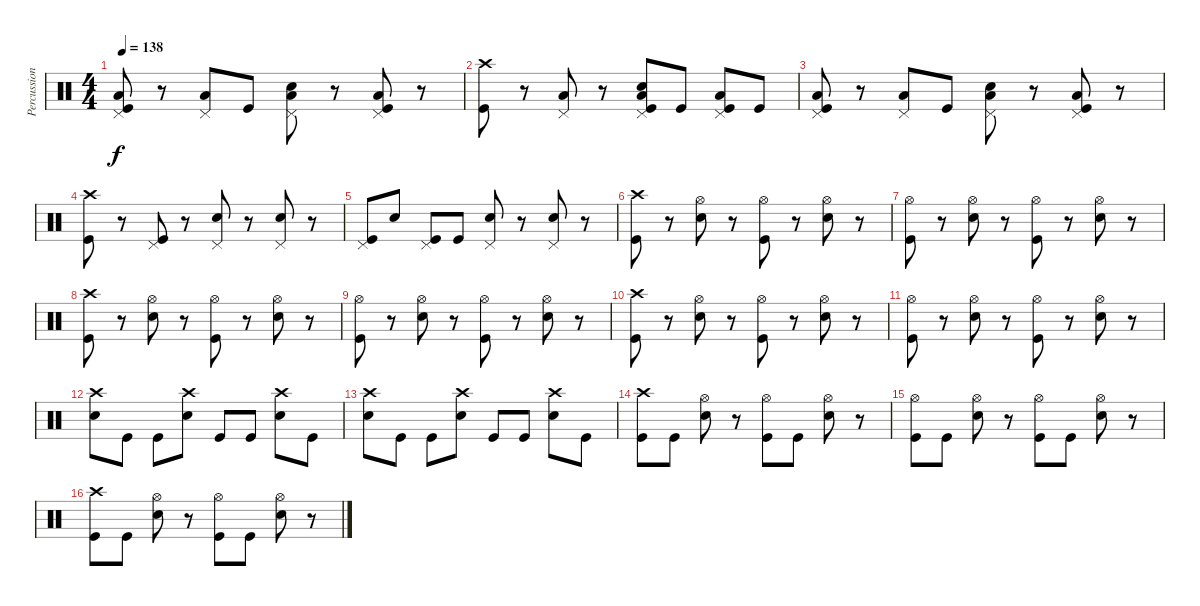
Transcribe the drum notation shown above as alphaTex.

\track ("Percussion" "Percussion") {instrument percussion}
\staff {score}
\articulation defaults
\ts (4 4)
\tempo 138
\clef neutral
\ks c
("Low Tom (hit)" "Pedal Hi-Hat (hit)" "Kick (hit)").8{dy f} r.8 ("Low Tom (hit)" "Pedal Hi-Hat (hit)").8 "Kick (hit)".8 ("Snare (hit) 2" "Low Tom (hit)" "Pedal Hi-Hat (hit)").8 r.8 ("Low Tom (hit)" "Pedal Hi-Hat (hit)" "Kick (hit)").8 r.8 |
("Crash high (hit)" "Kick (hit)").8 r.8 ("Low Tom (hit)" "Pedal Hi-Hat (hit)").8 r.8 ("Snare (hit) 2" "Low Tom (hit)" "Pedal Hi-Hat (hit)" "Kick (hit)").8 "Kick (hit)".8 ("Low Tom (hit)" "Pedal Hi-Hat (hit)" "Kick (hit)").8 "Kick (hit)".8 |
("Low Tom (hit)" "Pedal Hi-Hat (hit)" "Kick (hit)").8 r.8 ("Low Tom (hit)" "Pedal Hi-Hat (hit)").8 "Kick (hit)".8 ("Snare (hit) 2" "Low Tom (hit)" "Pedal Hi-Hat (hit)").8 r.8 ("Low Tom (hit)" "Pedal Hi-Hat (hit)" "Kick (hit)").8 r.8 |
("Crash high (hit)" "Kick (hit)").8 r.8 ("Pedal Hi-Hat (hit)" "Kick (hit)").8 r.8 ("Snare (hit) 2" "Pedal Hi-Hat (hit)").8 r.8 ("Snare (hit) 2" "Pedal Hi-Hat (hit)").8 r.8 |
("Pedal Hi-Hat (hit)" "Kick (hit)").8 "Snare (hit) 2".8 ("Pedal Hi-Hat (hit)" "Kick (hit)").8 "Kick (hit)".8 ("Snare (hit) 2" "Pedal Hi-Hat (hit)").8 r.8 ("Snare (hit) 2" "Pedal Hi-Hat (hit)").8 r.8 |
("Crash high (hit)" "Kick (hit)").8 r.8 ("Snare (hit) 2" "Hi-Hat (open)").8 r.8 ("Hi-Hat (open)" "Kick (hit)").8 r.8 ("Snare (hit) 2" "Hi-Hat (open)").8 r.8 |
("Hi-Hat (open)" "Kick (hit)").8 r.8 ("Snare (hit) 2" "Hi-Hat (open)").8 r.8 ("Hi-Hat (open)" "Kick (hit)").8 r.8 ("Snare (hit) 2" "Hi-Hat (open)").8 r.8 |
("Crash high (hit)" "Kick (hit)").8 r.8 ("Snare (hit) 2" "Hi-Hat (open)").8 r.8 ("Hi-Hat (open)" "Kick (hit)").8 r.8 ("Snare (hit) 2" "Hi-Hat (open)").8 r.8 |
("Hi-Hat (open)" "Kick (hit)").8 r.8 ("Snare (hit) 2" "Hi-Hat (open)").8 r.8 ("Hi-Hat (open)" "Kick (hit)").8 r.8 ("Snare (hit) 2" "Hi-Hat (open)").8 r.8 |
("Crash high (hit)" "Kick (hit)").8 r.8 ("Snare (hit) 2" "Hi-Hat (open)").8 r.8 ("Hi-Hat (open)" "Kick (hit)").8 r.8 ("Snare (hit) 2" "Hi-Hat (open)").8 r.8 |
("Hi-Hat (open)" "Kick (hit)").8 r.8 ("Snare (hit) 2" "Hi-Hat (open)").8 r.8 ("Hi-Hat (open)" "Kick (hit)").8 r.8 ("Snare (hit) 2" "Hi-Hat (open)").8 r.8 |
("Snare (hit) 2" "Crash high (hit)").8 "Kick (hit)".8 "Kick (hit)".8 ("Snare (hit) 2" "Crash high (hit)").8 "Kick (hit)".8 "Kick (hit)".8 ("Snare (hit) 2" "Crash high (hit)").8 "Kick (hit)".8 |
("Snare (hit) 2" "Crash high (hit)").8 "Kick (hit)".8 "Kick (hit)".8 ("Snare (hit) 2" "Crash high (hit)").8 "Kick (hit)".8 "Kick (hit)".8 ("Snare (hit) 2" "Crash high (hit)").8 "Kick (hit)".8 |
("Crash high (hit)" "Kick (hit)").8 "Kick (hit)".8 ("Snare (hit) 2" "Hi-Hat (open)").8 r.8 ("Hi-Hat (open)" "Kick (hit)").8 "Kick (hit)".8 ("Snare (hit) 2" "Hi-Hat (open)").8 r.8 |
("Hi-Hat (open)" "Kick (hit)").8 "Kick (hit)".8 ("Snare (hit) 2" "Hi-Hat (open)").8 r.8 ("Hi-Hat (open)" "Kick (hit)").8 "Kick (hit)".8 ("Snare (hit) 2" "Hi-Hat (open)").8 r.8 |
("Crash high (hit)" "Kick (hit)").8 "Kick (hit)".8 ("Snare (hit) 2" "Hi-Hat (open)").8 r.8 ("Hi-Hat (open)" "Kick (hit)").8 "Kick (hit)".8 ("Snare (hit) 2" "Hi-Hat (open)").8 r.8
